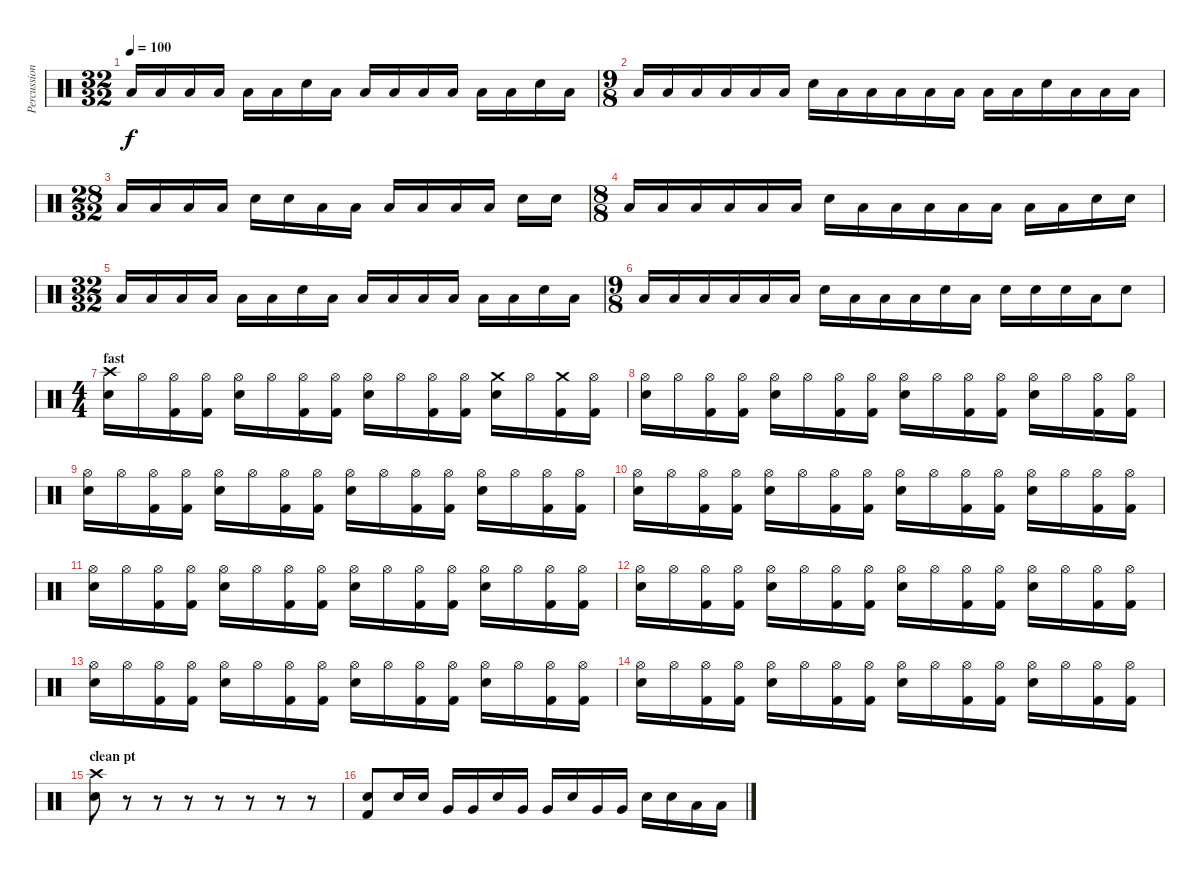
\track ("Percussion" "Percussion") {instrument percussion}
\staff {score}
\articulation defaults
\ts (32 32)
\tempo 100
\clef neutral
\ks c "Low Tom (hit)".16{dy f} "Low Tom (hit)".16 "Low Tom (hit)".16 "Low Tom (hit)".16 "Low Tom (hit)".16 "Low Tom (hit)".16 "Electric Snare (hit)".16 "Low Tom (hit)"{x}.16 "Low Tom (hit)".16 "Low Tom (hit)".16 "Low Tom (hit)".16 "Low Tom (hit)".16 "Low Tom (hit)".16 "Low Tom (hit)".16 "Electric Snare (hit)".16 "Low Tom (hit)"{x}.16
|
\ts (9 8)
"Low Tom (hit)".16 "Low Tom (hit)".16 "Low Tom (hit)".16 "Low Tom (hit)".16 "Low Tom (hit)".16 "Low Tom (hit)".16 "Electric Snare (hit)".16 "Low Tom (hit)"{x}.16 "Low Tom (hit)".16 "Low Tom (hit)".16 "Low Tom (hit)".16 "Low Tom (hit)".16 "Low Tom (hit)".16 "Low Tom (hit)".16 "Electric Snare (hit)".16 "Low Tom (hit)"{x}.16 "Low Tom (hit)".16 "Low Tom (hit)".16 |
\ts (28 32)
"Low Tom (hit)".16 "Low Tom (hit)".16 "Low Tom (hit)".16 "Low Tom (hit)".16 "Electric Snare (hit)".16 "Snare (hit)".16 "Low Tom (hit)".16 "Low Tom (hit)".16 "Low Tom (hit)".16 "Low Tom (hit)".16 "Low Tom (hit)".16 "Low Tom (hit)".16 "Electric Snare (hit)".16 "Snare (hit)"{x}.16 |
\ts (8 8)
"Low Tom (hit)".16 "Low Tom (hit)".16 "Low Tom (hit)".16 "Low Tom (hit)".16 "Low Tom (hit)".16 "Low Tom (hit)".16 "Electric Snare (hit)".16 "Low Tom (hit)"{x}.16 "Low Tom (hit)".16 "Low Tom (hit)".16 "Low Tom (hit)".16 "Low Tom (hit)".16 "Low Tom (hit)".16 "Low Tom (hit)".16 "Electric Snare (hit)".16 "Electric Snare (hit)"{x}.16 |
\ts (32 32)
"Low Tom (hit)".16 "Low Tom (hit)".16 "Low Tom (hit)".16 "Low Tom (hit)".16 "Low Tom (hit)".16 "Low Tom (hit)".16 "Electric Snare (hit)".16 "Low Tom (hit)"{x}.16 "Low Tom (hit)".16 "Low Tom (hit)".16 "Low Tom (hit)".16 "Low Tom (hit)".16 "Low Tom (hit)".16 "Low Tom (hit)".16 "Electric Snare (hit)".16 "Low Tom (hit)"{x}.16 |
\ts (9 8)
"Low Tom (hit)".16 "Low Tom (hit)".16 "Low Tom (hit)".16 "Low Tom (hit)".16 "Low Tom (hit)".16 "Low Tom (hit)".16 "Electric Snare (hit)".16 "Low Tom (hit)"{x}.16 "Low Tom (hit)".16 "Low Tom (hit)".16 "Electric Snare (hit)".16 "Low Tom (hit)".16 "Electric Snare (hit)".16 "Snare (hit)".16 "Electric Snare (hit)".16 "Low Tom (hit)".16 "Electric Snare (hit)".8 |
\ts (4 4)
\section ("" "fast")
("Crash high (hit)" "Electric Snare (hit)").16 "Hi-Hat (open)"{x}.16 ("Hi-Hat (open)" "Kick (hit) 2").16 ("Hi-Hat (open)"{x} "Kick (hit) 2").16 ("Hi-Hat (open)" "Electric Snare (hit)").16 "Hi-Hat (open)"{x}.16 ("Hi-Hat (open)" "Kick (hit) 2").16 ("Hi-Hat (open)"{x} "Kick (hit) 2").16 ("Hi-Hat (open)" "Electric Snare (hit)").16 "Hi-Hat (open)"{x}.16 ("Hi-Hat (open)" "Kick (hit) 2").16 ("Hi-Hat (open)"{x} "Kick (hit) 2").16 ("Crash medium (hit)" "Electric Snare (hit)").16 "Hi-Hat (open)"{x}.16 ("Crash medium (hit)" "Kick (hit) 2").16 ("Hi-Hat (open)"{x} "Kick (hit) 2").16 |
("Hi-Hat (open)" "Electric Snare (hit)").16 "Hi-Hat (open)"{x}.16 ("Hi-Hat (open)" "Kick (hit) 2").16 ("Hi-Hat (open)"{x} "Kick (hit) 2").16 ("Hi-Hat (open)" "Electric Snare (hit)").16 "Hi-Hat (open)"{x}.16 ("Hi-Hat (open)" "Kick (hit) 2").16 ("Hi-Hat (open)"{x} "Kick (hit) 2").16 ("Hi-Hat (open)" "Electric Snare (hit)").16 "Hi-Hat (open)"{x}.16 ("Hi-Hat (open)" "Kick (hit) 2").16 ("Hi-Hat (open)"{x} "Kick (hit) 2").16 ("Hi-Hat (open)" "Electric Snare (hit)").16 "Hi-Hat (open)"{x}.16 ("Hi-Hat (open)" "Kick (hit) 2").16 ("Hi-Hat (open)"{x} "Kick (hit) 2").16 |
("Hi-Hat (open)" "Electric Snare (hit)").16 "Hi-Hat (open)"{x}.16 ("Hi-Hat (open)" "Kick (hit) 2").16 ("Hi-Hat (open)"{x} "Kick (hit) 2").16 ("Hi-Hat (open)" "Electric Snare (hit)").16 "Hi-Hat (open)"{x}.16 ("Hi-Hat (open)" "Kick (hit) 2").16 ("Hi-Hat (open)"{x} "Kick (hit) 2").16 ("Hi-Hat (open)" "Electric Snare (hit)").16 "Hi-Hat (open)"{x}.16 ("Hi-Hat (open)" "Kick (hit) 2").16 ("Hi-Hat (open)"{x} "Kick (hit) 2").16 ("Hi-Hat (open)" "Electric Snare (hit)").16 "Hi-Hat (open)"{x}.16 ("Hi-Hat (open)" "Kick (hit) 2").16 ("Hi-Hat (open)"{x} "Kick (hit) 2").16 |
("Hi-Hat (open)" "Electric Snare (hit)").16 "Hi-Hat (open)"{x}.16 ("Hi-Hat (open)" "Kick (hit) 2").16 ("Hi-Hat (open)"{x} "Kick (hit) 2").16 ("Hi-Hat (open)" "Electric Snare (hit)").16 "Hi-Hat (open)"{x}.16 ("Hi-Hat (open)" "Kick (hit) 2").16 ("Hi-Hat (open)"{x} "Kick (hit) 2").16 ("Hi-Hat (open)" "Electric Snare (hit)").16 "Hi-Hat (open)"{x}.16 ("Hi-Hat (open)" "Kick (hit) 2").16 ("Hi-Hat (open)"{x} "Kick (hit) 2").16 ("Hi-Hat (open)" "Electric Snare (hit)").16 "Hi-Hat (open)"{x}.16 ("Hi-Hat (open)" "Kick (hit) 2").16 ("Hi-Hat (open)"{x} "Kick (hit) 2").16 |
("Hi-Hat (open)" "Electric Snare (hit)").16 "Hi-Hat (open)"{x}.16 ("Hi-Hat (open)" "Kick (hit) 2").16 ("Hi-Hat (open)"{x} "Kick (hit) 2").16 ("Hi-Hat (open)" "Electric Snare (hit)").16 "Hi-Hat (open)"{x}.16 ("Hi-Hat (open)" "Kick (hit) 2").16 ("Hi-Hat (open)"{x} "Kick (hit) 2").16 ("Hi-Hat (open)" "Electric Snare (hit)").16 "Hi-Hat (open)"{x}.16 ("Hi-Hat (open)" "Kick (hit) 2").16 ("Hi-Hat (open)"{x} "Kick (hit) 2").16 ("Hi-Hat (open)" "Electric Snare (hit)").16 "Hi-Hat (open)"{x}.16 ("Hi-Hat (open)" "Kick (hit) 2").16 ("Hi-Hat (open)"{x} "Kick (hit) 2").16 |
("Hi-Hat (open)" "Electric Snare (hit)").16 "Hi-Hat (open)"{x}.16 ("Hi-Hat (open)" "Kick (hit) 2").16 ("Hi-Hat (open)"{x} "Kick (hit) 2").16 ("Hi-Hat (open)" "Electric Snare (hit)").16 "Hi-Hat (open)"{x}.16 ("Hi-Hat (open)" "Kick (hit) 2").16 ("Hi-Hat (open)"{x} "Kick (hit) 2").16 ("Hi-Hat (open)" "Electric Snare (hit)").16 "Hi-Hat (open)"{x}.16 ("Hi-Hat (open)" "Kick (hit) 2").16 ("Hi-Hat (open)"{x} "Kick (hit) 2").16 ("Hi-Hat (open)" "Electric Snare (hit)").16 "Hi-Hat (open)"{x}.16 ("Hi-Hat (open)" "Kick (hit) 2").16 ("Hi-Hat (open)"{x} "Kick (hit) 2").16 |
("Hi-Hat (open)" "Electric Snare (hit)").16 "Hi-Hat (open)"{x}.16 ("Hi-Hat (open)" "Kick (hit) 2").16 ("Hi-Hat (open)"{x} "Kick (hit) 2").16 ("Hi-Hat (open)" "Electric Snare (hit)").16 "Hi-Hat (open)"{x}.16 ("Hi-Hat (open)" "Kick (hit) 2").16 ("Hi-Hat (open)"{x} "Kick (hit) 2").16 ("Hi-Hat (open)" "Electric Snare (hit)").16 "Hi-Hat (open)"{x}.16 ("Hi-Hat (open)" "Kick (hit) 2").16 ("Hi-Hat (open)"{x} "Kick (hit) 2").16 ("Hi-Hat (open)" "Electric Snare (hit)").16 "Hi-Hat (open)"{x}.16 ("Hi-Hat (open)" "Kick (hit) 2").16 ("Hi-Hat (open)"{x} "Kick (hit) 2").16 |
("Hi-Hat (open)" "Electric Snare (hit)").16 "Hi-Hat (open)"{x}.16 ("Hi-Hat (open)" "Kick (hit) 2").16 ("Hi-Hat (open)"{x} "Kick (hit) 2").16 ("Hi-Hat (open)" "Electric Snare (hit)").16 "Hi-Hat (open)"{x}.16 ("Hi-Hat (open)" "Kick (hit) 2").16 ("Hi-Hat (open)"{x} "Kick (hit) 2").16 ("Hi-Hat (open)" "Electric Snare (hit)").16 "Hi-Hat (open)"{x}.16 ("Hi-Hat (open)" "Kick (hit) 2").16 ("Hi-Hat (open)"{x} "Kick (hit) 2").16 ("Hi-Hat (open)" "Electric Snare (hit)").16 "Hi-Hat (open)"{x}.16 ("Hi-Hat (open)" "Kick (hit) 2").16 ("Hi-Hat (open)"{x} "Kick (hit) 2").16 |
\section ("" "clean pt")
("Crash high (hit)" "Electric Snare (hit)").8 r.8 r.8 r.8 r.8 r.8 r.8 r.8 |
("Electric Snare (hit)" "Kick (hit) 2").8 "Electric Snare (hit)".16 "Electric Snare (hit)".16 "Very Low Tom (hit)".16 "Very Low Tom (hit)".16 "Electric Snare (hit)".16 "Very Low Tom (hit)".16 "Very Low Tom (hit)".16 "Electric Snare (hit)".16 "Very Low Tom (hit)".16 "Very Low Tom (hit)".16 "Electric Snare (hit)".16 "Electric Snare (hit)".16 "Low Tom (hit)".16 "Low Tom (hit)".16
